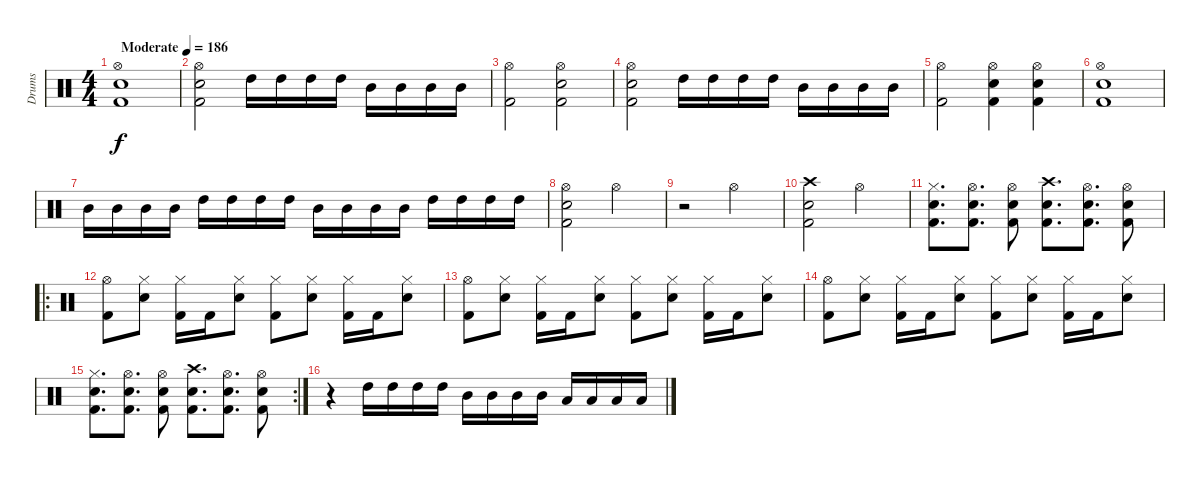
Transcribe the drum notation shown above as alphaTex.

\track ("Drums" "Drums") {instrument percussion}
\staff {score}
\articulation defaults
\ts (4 4)
\tempo (186 "Moderate")
\clef neutral
\ks c
("Hi-Hat (open)" "Electric Snare (hit)" "Kick (hit) 2").1{dy f} |
("Hi-Hat (open)" "Electric Snare (hit)" "Kick (hit) 2").2 "High Tom (hit)".16 "High Tom (hit)".16 "High Tom (hit)".16 "High Tom (hit)".16 "Mid Tom (hit)".16 "Mid Tom (hit)".16 "Mid Tom (hit)".16 "Mid Tom (hit)".16 |
("Hi-Hat (open)" "Kick (hit) 2").2 ("Hi-Hat (open)" "Electric Snare (hit)" "Kick (hit) 2").2 |
("Hi-Hat (open)" "Electric Snare (hit)" "Kick (hit) 2").2 "High Tom (hit)".16 "High Tom (hit)".16 "High Tom (hit)".16 "High Tom (hit)".16 "Mid Tom (hit)".16 "Mid Tom (hit)".16 "Mid Tom (hit)".16 "Mid Tom (hit)".16 |
("Hi-Hat (open)" "Kick (hit) 2").2 ("Hi-Hat (open)" "Electric Snare (hit)" "Kick (hit) 2").4 ("Hi-Hat (open)" "Electric Snare (hit)" "Kick (hit) 2").4 |
("Hi-Hat (open)" "Electric Snare (hit)" "Kick (hit) 2").1 |
"Mid Tom (hit)".16 "Mid Tom (hit)".16 "Mid Tom (hit)".16 "Mid Tom (hit)".16 "High Tom (hit)".16 "High Tom (hit)".16 "High Tom (hit)".16 "High Tom (hit)".16 "Mid Tom (hit)".16 "Mid Tom (hit)".16 "Mid Tom (hit)".16 "Mid Tom (hit)".16 "High Tom (hit)".16 "High Tom (hit)".16 "High Tom (hit)".16 "High Tom (hit)".16 |
("Hi-Hat (open)" "Electric Snare (hit)" "Kick (hit) 2").2 "Hi-Hat (open)".2 |
r.2 "Hi-Hat (open)".2 |
("Crash high (hit)" "Electric Snare (hit)" "Kick (hit) 2").2 "Hi-Hat (open)".2 |
("Hi-Hat (closed)" "Electric Snare (hit)" "Kick (hit) 2").8{d} ("Hi-Hat (open)" "Electric Snare (hit)" "Kick (hit) 2").8{d} ("Hi-Hat (open)" "Electric Snare (hit)" "Kick (hit) 2").8 ("Crash high (hit)" "Electric Snare (hit)" "Kick (hit) 2").8{d} ("Hi-Hat (open)" "Electric Snare (hit)" "Kick (hit) 2").8{d} ("Hi-Hat (open)" "Electric Snare (hit)" "Kick (hit) 2").8 |
\ro
("Hi-Hat (open)" "Kick (hit) 2").8 ("Hi-Hat (closed)" "Electric Snare (hit)").8 ("Hi-Hat (closed)" "Kick (hit) 2").16 "Kick (hit) 2".16 ("Hi-Hat (closed)" "Electric Snare (hit)").8 ("Hi-Hat (closed)" "Kick (hit) 2").8 ("Hi-Hat (closed)" "Electric Snare (hit)").8 ("Hi-Hat (closed)" "Kick (hit) 2").16 "Kick (hit) 2".16 ("Hi-Hat (closed)" "Electric Snare (hit)").8 |
("Hi-Hat (open)" "Kick (hit) 2").8 ("Hi-Hat (closed)" "Electric Snare (hit)").8 ("Hi-Hat (closed)" "Kick (hit) 2").16 "Kick (hit) 2".16 ("Hi-Hat (closed)" "Electric Snare (hit)").8 ("Hi-Hat (closed)" "Kick (hit) 2").8 ("Hi-Hat (closed)" "Electric Snare (hit)").8 ("Hi-Hat (closed)" "Kick (hit) 2").16 "Kick (hit) 2".16 ("Hi-Hat (closed)" "Electric Snare (hit)").8 |
("Hi-Hat (open)" "Kick (hit) 2").8 ("Hi-Hat (closed)" "Electric Snare (hit)").8 ("Hi-Hat (closed)" "Kick (hit) 2").16 "Kick (hit) 2".16 ("Hi-Hat (closed)" "Electric Snare (hit)").8 ("Hi-Hat (closed)" "Kick (hit) 2").8 ("Hi-Hat (closed)" "Electric Snare (hit)").8 ("Hi-Hat (closed)" "Kick (hit) 2").16 "Kick (hit) 2".16 ("Hi-Hat (closed)" "Electric Snare (hit)").8 |
\rc 2
("Hi-Hat (closed)" "Electric Snare (hit)" "Kick (hit) 2").8{d} ("Hi-Hat (open)" "Electric Snare (hit)" "Kick (hit) 2").8{d} ("Hi-Hat (open)" "Electric Snare (hit)" "Kick (hit) 2").8 ("Crash high (hit)" "Electric Snare (hit)" "Kick (hit) 2").8{d} ("Hi-Hat (open)" "Electric Snare (hit)" "Kick (hit) 2").8{d} ("Hi-Hat (open)" "Electric Snare (hit)" "Kick (hit) 2").8 |
r.4 "High Tom (hit)".16 "High Tom (hit)".16 "High Tom (hit)".16 "High Tom (hit)".16 "Mid Tom (hit)".16 "Mid Tom (hit)".16 "Mid Tom (hit)".16 "Mid Tom (hit)".16 "Low Tom (hit)".16 "Low Tom (hit)".16 "Low Tom (hit)".16 "Low Tom (hit)".16
